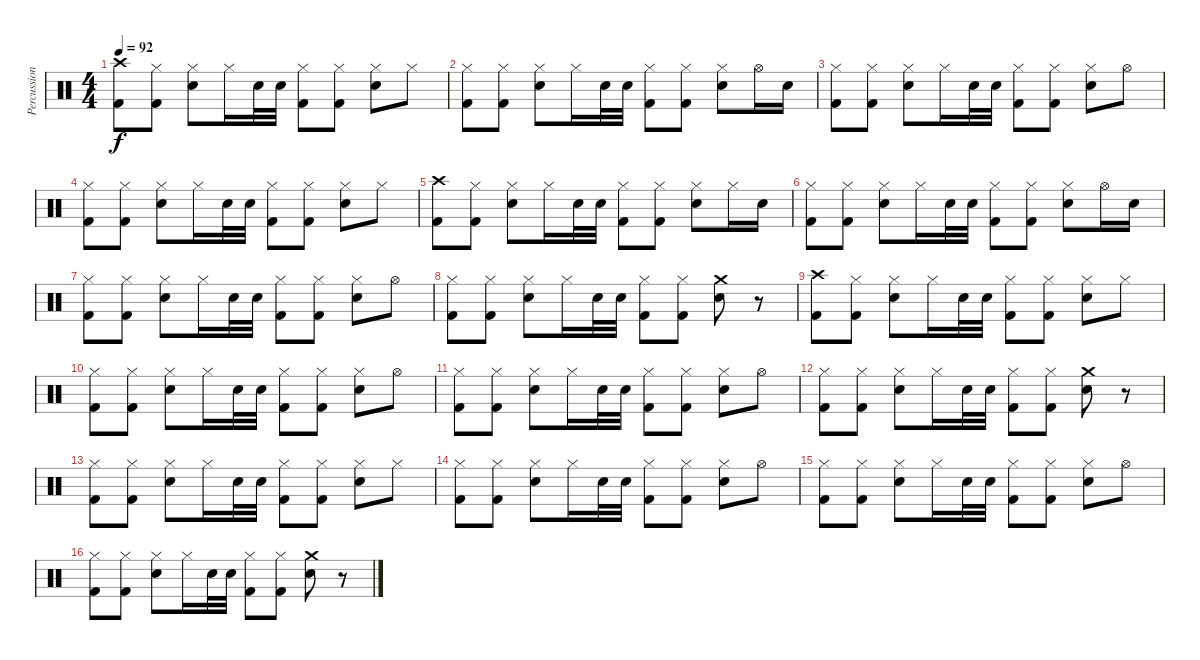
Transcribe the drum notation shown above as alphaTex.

\track ("Percussion" "Percussion") {instrument percussion}
\staff {score}
\articulation defaults
\ts (4 4)
\tempo 92
\clef neutral
\ks c
("Crash high (hit)" "Kick (hit) 2").8{dy f} ("Hi-Hat (closed)" "Kick (hit) 2").8 ("Hi-Hat (closed)" "Electric Snare (hit)").8 "Hi-Hat (closed)".16 "Electric Snare (hit)".32 "Electric Snare (hit)".32 ("Hi-Hat (closed)" "Kick (hit) 2").8 ("Hi-Hat (closed)" "Kick (hit) 2").8 ("Hi-Hat (closed)" "Electric Snare (hit)").8 "Hi-Hat (closed)".8 |
("Hi-Hat (closed)" "Kick (hit) 2").8 ("Hi-Hat (closed)" "Kick (hit) 2").8 ("Hi-Hat (closed)" "Electric Snare (hit)").8 "Hi-Hat (closed)".16 "Electric Snare (hit)".32 "Electric Snare (hit)".32 ("Hi-Hat (closed)" "Kick (hit) 2").8 ("Hi-Hat (closed)" "Kick (hit) 2").8 ("Hi-Hat (closed)" "Electric Snare (hit)").8 "Hi-Hat (open)".16 "Electric Snare (hit)".16 |
("Hi-Hat (closed)" "Kick (hit) 2").8 ("Hi-Hat (closed)" "Kick (hit) 2").8 ("Hi-Hat (closed)" "Electric Snare (hit)").8 "Hi-Hat (closed)".16 "Electric Snare (hit)".32 "Electric Snare (hit)".32 ("Hi-Hat (closed)" "Kick (hit) 2").8 ("Hi-Hat (closed)" "Kick (hit) 2").8 ("Hi-Hat (closed)" "Electric Snare (hit)").8 "Hi-Hat (open)".8 |
("Hi-Hat (closed)" "Kick (hit) 2").8 ("Hi-Hat (closed)" "Kick (hit) 2").8 ("Hi-Hat (closed)" "Electric Snare (hit)").8 "Hi-Hat (closed)".16 "Electric Snare (hit)".32 "Electric Snare (hit)".32 ("Hi-Hat (closed)" "Kick (hit) 2").8 ("Hi-Hat (closed)" "Kick (hit) 2").8 ("Hi-Hat (closed)" "Electric Snare (hit)").8 "Hi-Hat (closed)".8 |
("Crash high (hit)" "Kick (hit) 2").8 ("Hi-Hat (closed)" "Kick (hit) 2").8 ("Hi-Hat (closed)" "Electric Snare (hit)").8 "Hi-Hat (closed)".16 "Electric Snare (hit)".32 "Electric Snare (hit)".32 ("Hi-Hat (closed)" "Kick (hit) 2").8 ("Hi-Hat (closed)" "Kick (hit) 2").8 ("Hi-Hat (closed)" "Electric Snare (hit)").8 "Hi-Hat (closed)".16 "Electric Snare (hit)".16 |
("Hi-Hat (closed)" "Kick (hit) 2").8 ("Hi-Hat (closed)" "Kick (hit) 2").8 ("Hi-Hat (closed)" "Electric Snare (hit)").8 "Hi-Hat (closed)".16 "Electric Snare (hit)".32 "Electric Snare (hit)".32 ("Hi-Hat (closed)" "Kick (hit) 2").8 ("Hi-Hat (closed)" "Kick (hit) 2").8 ("Hi-Hat (closed)" "Electric Snare (hit)").8 "Hi-Hat (open)".16 "Electric Snare (hit)".16 |
("Hi-Hat (closed)" "Kick (hit) 2").8 ("Hi-Hat (closed)" "Kick (hit) 2").8 ("Hi-Hat (closed)" "Electric Snare (hit)").8 "Hi-Hat (closed)".16 "Electric Snare (hit)".32 "Electric Snare (hit)".32 ("Hi-Hat (closed)" "Kick (hit) 2").8 ("Hi-Hat (closed)" "Kick (hit) 2").8 ("Hi-Hat (closed)" "Electric Snare (hit)").8 "Hi-Hat (open)".8 |
("Hi-Hat (closed)" "Kick (hit) 2").8 ("Hi-Hat (closed)" "Kick (hit) 2").8 ("Hi-Hat (closed)" "Electric Snare (hit)").8 "Hi-Hat (closed)".16 "Electric Snare (hit)".32 "Electric Snare (hit)".32 ("Hi-Hat (closed)" "Kick (hit) 2").8 ("Hi-Hat (closed)" "Kick (hit) 2").8 ("Crash medium (hit)" "Electric Snare (hit)").8 r.8 |
("Crash high (hit)" "Kick (hit) 2").8 ("Hi-Hat (closed)" "Kick (hit) 2").8 ("Hi-Hat (closed)" "Electric Snare (hit)").8 "Hi-Hat (closed)".16 "Electric Snare (hit)".32 "Electric Snare (hit)".32 ("Hi-Hat (closed)" "Kick (hit) 2").8 ("Hi-Hat (closed)" "Kick (hit) 2").8 ("Hi-Hat (closed)" "Electric Snare (hit)").8 "Hi-Hat (closed)".8 |
("Hi-Hat (closed)" "Kick (hit) 2").8 ("Hi-Hat (closed)" "Kick (hit) 2").8 ("Hi-Hat (closed)" "Electric Snare (hit)").8 "Hi-Hat (closed)".16 "Electric Snare (hit)".32 "Electric Snare (hit)".32 ("Hi-Hat (closed)" "Kick (hit) 2").8 ("Hi-Hat (closed)" "Kick (hit) 2").8 ("Hi-Hat (closed)" "Electric Snare (hit)").8 "Hi-Hat (open)".8 |
("Hi-Hat (closed)" "Kick (hit) 2").8 ("Hi-Hat (closed)" "Kick (hit) 2").8 ("Hi-Hat (closed)" "Electric Snare (hit)").8 "Hi-Hat (closed)".16 "Electric Snare (hit)".32 "Electric Snare (hit)".32 ("Hi-Hat (closed)" "Kick (hit) 2").8 ("Hi-Hat (closed)" "Kick (hit) 2").8 ("Hi-Hat (closed)" "Electric Snare (hit)").8 "Hi-Hat (open)".8 |
("Hi-Hat (closed)" "Kick (hit) 2").8 ("Hi-Hat (closed)" "Kick (hit) 2").8 ("Hi-Hat (closed)" "Electric Snare (hit)").8 "Hi-Hat (closed)".16 "Electric Snare (hit)".32 "Electric Snare (hit)".32 ("Hi-Hat (closed)" "Kick (hit) 2").8 ("Hi-Hat (closed)" "Kick (hit) 2").8 ("Crash medium (hit)" "Electric Snare (hit)").8 r.8 |
("Hi-Hat (closed)" "Kick (hit) 2").8 ("Hi-Hat (closed)" "Kick (hit) 2").8 ("Hi-Hat (closed)" "Electric Snare (hit)").8 "Hi-Hat (closed)".16 "Electric Snare (hit)".32 "Electric Snare (hit)".32 ("Hi-Hat (closed)" "Kick (hit) 2").8 ("Hi-Hat (closed)" "Kick (hit) 2").8 ("Hi-Hat (closed)" "Electric Snare (hit)").8 "Hi-Hat (closed)".8 |
("Hi-Hat (closed)" "Kick (hit) 2").8 ("Hi-Hat (closed)" "Kick (hit) 2").8 ("Hi-Hat (closed)" "Electric Snare (hit)").8 "Hi-Hat (closed)".16 "Electric Snare (hit)".32 "Electric Snare (hit)".32 ("Hi-Hat (closed)" "Kick (hit) 2").8 ("Hi-Hat (closed)" "Kick (hit) 2").8 ("Hi-Hat (closed)" "Electric Snare (hit)").8 "Hi-Hat (open)".8 |
("Hi-Hat (closed)" "Kick (hit) 2").8 ("Hi-Hat (closed)" "Kick (hit) 2").8 ("Hi-Hat (closed)" "Electric Snare (hit)").8 "Hi-Hat (closed)".16 "Electric Snare (hit)".32 "Electric Snare (hit)".32 ("Hi-Hat (closed)" "Kick (hit) 2").8 ("Hi-Hat (closed)" "Kick (hit) 2").8 ("Hi-Hat (closed)" "Electric Snare (hit)").8 "Hi-Hat (open)".8 |
("Hi-Hat (closed)" "Kick (hit) 2").8 ("Hi-Hat (closed)" "Kick (hit) 2").8 ("Hi-Hat (closed)" "Electric Snare (hit)").8 "Hi-Hat (closed)".16 "Electric Snare (hit)".32 "Electric Snare (hit)".32 ("Hi-Hat (closed)" "Kick (hit) 2").8 ("Hi-Hat (closed)" "Kick (hit) 2").8 ("Crash medium (hit)" "Electric Snare (hit)").8 r.8
